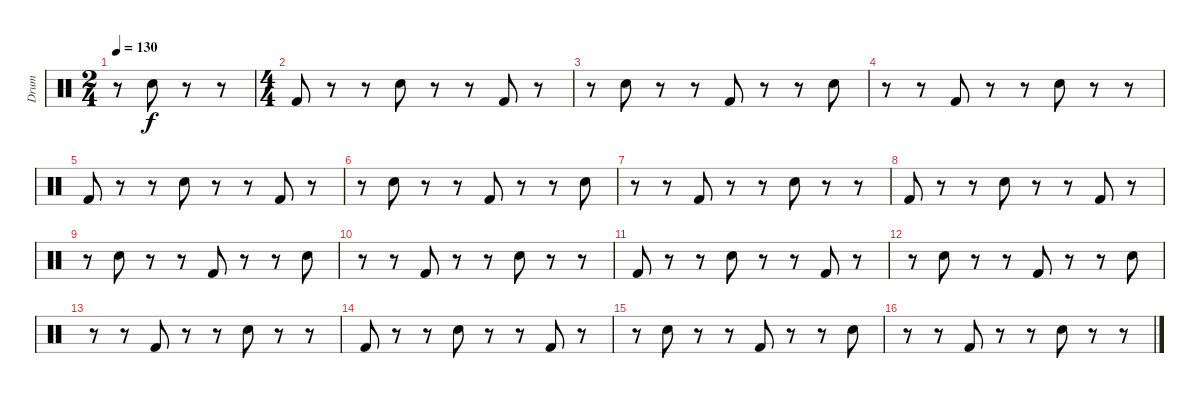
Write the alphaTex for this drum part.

\track ("Drum" "Drum") {mute instrument percussion}
\staff {score}
\articulation defaults
\ts (2 4)
\tempo 130
\clef neutral
\ks c
r.8{dy f} "Snare (hit) 2".8 r.8 r.8 |
\ts (4 4)
"Kick (hit) 2".8 r.8 r.8 "Snare (hit) 2".8 r.8 r.8 "Kick (hit) 2".8 r.8 |
r.8 "Snare (hit) 2".8 r.8 r.8 "Kick (hit) 2".8 r.8 r.8 "Snare (hit) 2".8 |
r.8 r.8 "Kick (hit) 2".8 r.8 r.8 "Snare (hit) 2".8 r.8 r.8 |
"Kick (hit) 2".8 r.8 r.8 "Snare (hit) 2".8 r.8 r.8 "Kick (hit) 2".8 r.8 |
r.8 "Snare (hit) 2".8 r.8 r.8 "Kick (hit) 2".8 r.8 r.8 "Snare (hit) 2".8 |
r.8 r.8 "Kick (hit) 2".8 r.8 r.8 "Snare (hit) 2".8 r.8 r.8 |
"Kick (hit) 2".8 r.8 r.8 "Snare (hit) 2".8 r.8 r.8 "Kick (hit) 2".8 r.8 |
r.8 "Snare (hit) 2".8 r.8 r.8 "Kick (hit) 2".8 r.8 r.8 "Snare (hit) 2".8 |
r.8 r.8 "Kick (hit) 2".8 r.8 r.8 "Snare (hit) 2".8 r.8 r.8 |
"Kick (hit) 2".8 r.8 r.8 "Snare (hit) 2".8 r.8 r.8 "Kick (hit) 2".8 r.8 |
r.8 "Snare (hit) 2".8 r.8 r.8 "Kick (hit) 2".8 r.8 r.8 "Snare (hit) 2".8 |
r.8 r.8 "Kick (hit) 2".8 r.8 r.8 "Snare (hit) 2".8 r.8 r.8 |
"Kick (hit) 2".8 r.8 r.8 "Snare (hit) 2".8 r.8 r.8 "Kick (hit) 2".8 r.8 |
r.8 "Snare (hit) 2".8 r.8 r.8 "Kick (hit) 2".8 r.8 r.8 "Snare (hit) 2".8 |
r.8 r.8 "Kick (hit) 2".8 r.8 r.8 "Snare (hit) 2".8 r.8 r.8
